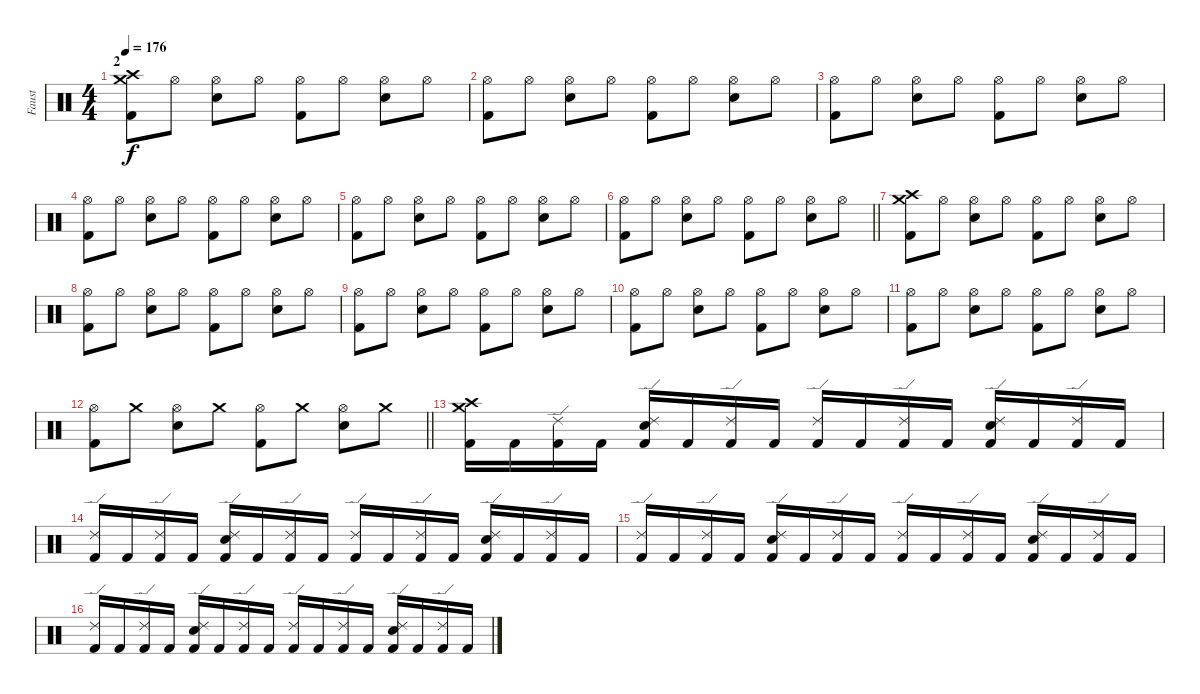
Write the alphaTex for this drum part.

\track ("Faust" "Faust") {instrument percussion}
\staff {score}
\articulation defaults
\ts (4 4)
\section ("" "2")
\tempo 176
\clef neutral
\ks c
("Crash medium (hit)" "Crash high (hit)" "Kick (hit) 2").8{dy f} "Hi-Hat (open)".8 ("Hi-Hat (open)" "Electric Snare (hit)").8 "Hi-Hat (open)".8 ("Hi-Hat (open)" "Kick (hit) 2").8 "Hi-Hat (open)".8 ("Hi-Hat (open)" "Electric Snare (hit)").8 "Hi-Hat (open)".8 |
("Hi-Hat (open)" "Kick (hit) 2").8 "Hi-Hat (open)".8 ("Hi-Hat (open)" "Electric Snare (hit)").8 "Hi-Hat (open)".8 ("Hi-Hat (open)" "Kick (hit) 2").8 "Hi-Hat (open)".8 ("Hi-Hat (open)" "Electric Snare (hit)").8 "Hi-Hat (open)".8 |
("Hi-Hat (open)" "Kick (hit) 2").8 "Hi-Hat (open)".8 ("Hi-Hat (open)" "Electric Snare (hit)").8 "Hi-Hat (open)".8 ("Hi-Hat (open)" "Kick (hit) 2").8 "Hi-Hat (open)".8 ("Hi-Hat (open)" "Electric Snare (hit)").8 "Hi-Hat (open)".8 |
("Hi-Hat (open)" "Kick (hit) 2").8 "Hi-Hat (open)".8 ("Hi-Hat (open)" "Electric Snare (hit)").8 "Hi-Hat (open)".8 ("Hi-Hat (open)" "Kick (hit) 2").8 "Hi-Hat (open)".8 ("Hi-Hat (open)" "Electric Snare (hit)").8 "Hi-Hat (open)".8 |
("Hi-Hat (open)" "Kick (hit) 2").8 "Hi-Hat (open)".8 ("Hi-Hat (open)" "Electric Snare (hit)").8 "Hi-Hat (open)".8 ("Hi-Hat (open)" "Kick (hit) 2").8 "Hi-Hat (open)".8 ("Hi-Hat (open)" "Electric Snare (hit)").8 "Hi-Hat (open)".8 |
\barLineRight lightlight
("Hi-Hat (open)" "Kick (hit) 2").8 "Hi-Hat (open)".8 ("Hi-Hat (open)" "Electric Snare (hit)").8 "Hi-Hat (open)".8 ("Hi-Hat (open)" "Kick (hit) 2").8 "Hi-Hat (open)".8 ("Hi-Hat (open)" "Electric Snare (hit)").8 "Hi-Hat (open)".8 |
\section ("" "")
("Crash medium (hit)" "Crash high (hit)" "Kick (hit) 2").8 "Hi-Hat (open)".8 ("Hi-Hat (open)" "Electric Snare (hit)").8 "Hi-Hat (open)".8 ("Hi-Hat (open)" "Kick (hit) 2").8 "Hi-Hat (open)".8 ("Hi-Hat (open)" "Electric Snare (hit)").8 "Hi-Hat (open)".8 |
("Hi-Hat (open)" "Kick (hit) 2").8 "Hi-Hat (open)".8 ("Hi-Hat (open)" "Electric Snare (hit)").8 "Hi-Hat (open)".8 ("Hi-Hat (open)" "Kick (hit) 2").8 "Hi-Hat (open)".8 ("Hi-Hat (open)" "Electric Snare (hit)").8 "Hi-Hat (open)".8 |
("Hi-Hat (open)" "Kick (hit) 2").8 "Hi-Hat (open)".8 ("Hi-Hat (open)" "Electric Snare (hit)").8 "Hi-Hat (open)".8 ("Hi-Hat (open)" "Kick (hit) 2").8 "Hi-Hat (open)".8 ("Hi-Hat (open)" "Electric Snare (hit)").8 "Hi-Hat (open)".8 |
("Hi-Hat (open)" "Kick (hit) 2").8 "Hi-Hat (open)".8 ("Hi-Hat (open)" "Electric Snare (hit)").8 "Hi-Hat (open)".8 ("Hi-Hat (open)" "Kick (hit) 2").8 "Hi-Hat (open)".8 ("Hi-Hat (open)" "Electric Snare (hit)").8 "Hi-Hat (open)".8 |
("Hi-Hat (open)" "Kick (hit) 2").8 "Hi-Hat (open)".8 ("Hi-Hat (open)" "Electric Snare (hit)").8 "Hi-Hat (open)".8 ("Hi-Hat (open)" "Kick (hit) 2").8 "Hi-Hat (open)".8 ("Hi-Hat (open)" "Electric Snare (hit)").8 "Hi-Hat (open)".8 |
\barLineRight lightlight
("Hi-Hat (open)" "Kick (hit) 2").8 "Crash medium (hit)".8 ("Hi-Hat (open)" "Electric Snare (hit)").8 "Crash medium (hit)".8 ("Hi-Hat (open)" "Kick (hit) 2").8 "Crash medium (hit)".8 ("Hi-Hat (open)" "Electric Snare (hit)").8 "Crash medium (hit)".8 |
\section ("" "")
("Crash high (hit)" "Crash medium (hit)" "Kick (hit) 2").16 "Kick (hit) 2".16 ("Ride (edge) 2" "Kick (hit) 2").16 "Kick (hit) 2".16 ("Ride (edge) 2" "Electric Snare (hit)" "Kick (hit) 2").16 "Kick (hit) 2".16 ("Ride (edge) 2" "Kick (hit) 2").16 "Kick (hit) 2".16 ("Ride (edge) 2" "Kick (hit) 2").16 "Kick (hit) 2".16 ("Ride (edge) 2" "Kick (hit) 2").16 "Kick (hit) 2".16 ("Ride (edge) 2" "Electric Snare (hit)" "Kick (hit) 2").16 "Kick (hit) 2".16 ("Ride (edge) 2" "Kick (hit) 2").16 "Kick (hit) 2".16 |
("Ride (edge) 2" "Kick (hit) 2").16 "Kick (hit) 2".16 ("Ride (edge) 2" "Kick (hit) 2").16 "Kick (hit) 2".16 ("Ride (edge) 2" "Electric Snare (hit)" "Kick (hit) 2").16 "Kick (hit) 2".16 ("Ride (edge) 2" "Kick (hit) 2").16 "Kick (hit) 2".16 ("Ride (edge) 2" "Kick (hit) 2").16 "Kick (hit) 2".16 ("Ride (edge) 2" "Kick (hit) 2").16 "Kick (hit) 2".16 ("Ride (edge) 2" "Electric Snare (hit)" "Kick (hit) 2").16 "Kick (hit) 2".16 ("Ride (edge) 2" "Kick (hit) 2").16 "Kick (hit) 2".16 |
("Ride (edge) 2" "Kick (hit) 2").16 "Kick (hit) 2".16 ("Ride (edge) 2" "Kick (hit) 2").16 "Kick (hit) 2".16 ("Ride (edge) 2" "Electric Snare (hit)" "Kick (hit) 2").16 "Kick (hit) 2".16 ("Ride (edge) 2" "Kick (hit) 2").16 "Kick (hit) 2".16 ("Ride (edge) 2" "Kick (hit) 2").16 "Kick (hit) 2".16 ("Ride (edge) 2" "Kick (hit) 2").16 "Kick (hit) 2".16 ("Ride (edge) 2" "Electric Snare (hit)" "Kick (hit) 2").16 "Kick (hit) 2".16 ("Ride (edge) 2" "Kick (hit) 2").16 "Kick (hit) 2".16 |
("Ride (edge) 2" "Kick (hit) 2").16 "Kick (hit) 2".16 ("Ride (edge) 2" "Kick (hit) 2").16 "Kick (hit) 2".16 ("Ride (edge) 2" "Electric Snare (hit)" "Kick (hit) 2").16 "Kick (hit) 2".16 ("Ride (edge) 2" "Kick (hit) 2").16 "Kick (hit) 2".16 ("Ride (edge) 2" "Kick (hit) 2").16 "Kick (hit) 2".16 ("Ride (edge) 2" "Kick (hit) 2").16 "Kick (hit) 2".16 ("Ride (edge) 2" "Electric Snare (hit)" "Kick (hit) 2").16 "Kick (hit) 2".16 ("Ride (edge) 2" "Kick (hit) 2").16 "Kick (hit) 2".16
